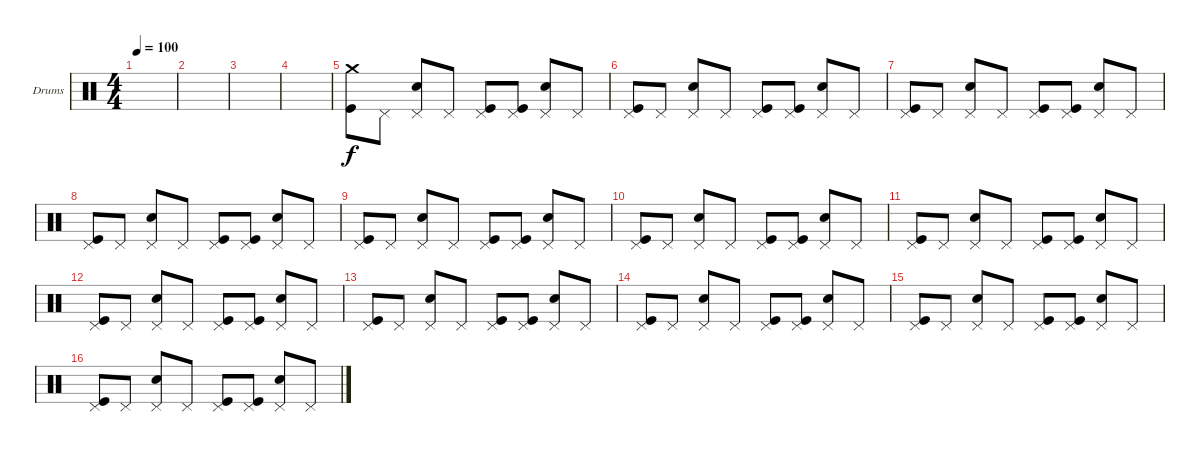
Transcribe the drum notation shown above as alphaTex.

\defaultSystemsLayout 4
\bracketExtendMode groupsimilarinstruments
\firstSystemTrackNameOrientation horizontal
\otherSystemsTrackNameOrientation horizontal
\track ("Drumkit" "Drums") {instrument percussion}
\staff {score}
\articulation defaults
\ts (4 4)
\tempo 100
\clef neutral
\scale
0.474178
\ks c
|
\scale
0.262911 |
\scale
0.262911 |
|
("Crash medium (hit)" "Kick (hit)").8 "Pedal Hi-Hat (hit)".8 ("Pedal Hi-Hat (hit)" "Snare (hit) 2").8 "Pedal Hi-Hat (hit)".8 ("Pedal Hi-Hat (hit)" "Kick (hit)").8 ("Pedal Hi-Hat (hit)" "Kick (hit)").8 ("Pedal Hi-Hat (hit)" "Snare (hit) 2").8 "Pedal Hi-Hat (hit)".8 |
("Pedal Hi-Hat (hit)" "Kick (hit)").8 "Pedal Hi-Hat (hit)".8 ("Pedal Hi-Hat (hit)" "Snare (hit) 2").8 "Pedal Hi-Hat (hit)".8 ("Pedal Hi-Hat (hit)" "Kick (hit)").8 ("Pedal Hi-Hat (hit)" "Kick (hit)").8 ("Pedal Hi-Hat (hit)" "Snare (hit) 2").8 "Pedal Hi-Hat (hit)".8 |
("Pedal Hi-Hat (hit)" "Kick (hit)").8 "Pedal Hi-Hat (hit)".8 ("Pedal Hi-Hat (hit)" "Snare (hit) 2").8 "Pedal Hi-Hat (hit)".8 ("Pedal Hi-Hat (hit)" "Kick (hit)").8 ("Pedal Hi-Hat (hit)" "Kick (hit)").8 ("Pedal Hi-Hat (hit)" "Snare (hit) 2").8 "Pedal Hi-Hat (hit)".8 |
("Pedal Hi-Hat (hit)" "Kick (hit)").8 "Pedal Hi-Hat (hit)".8 ("Pedal Hi-Hat (hit)" "Snare (hit) 2").8 "Pedal Hi-Hat (hit)".8 ("Pedal Hi-Hat (hit)" "Kick (hit)").8 ("Pedal Hi-Hat (hit)" "Kick (hit)").8 ("Pedal Hi-Hat (hit)" "Snare (hit) 2").8 "Pedal Hi-Hat (hit)".8 |
("Pedal Hi-Hat (hit)" "Kick (hit)").8 "Pedal Hi-Hat (hit)".8 ("Pedal Hi-Hat (hit)" "Snare (hit) 2").8 "Pedal Hi-Hat (hit)".8 ("Pedal Hi-Hat (hit)" "Kick (hit)").8 ("Pedal Hi-Hat (hit)" "Kick (hit)").8 ("Pedal Hi-Hat (hit)" "Snare (hit) 2").8 "Pedal Hi-Hat (hit)".8 |
("Pedal Hi-Hat (hit)" "Kick (hit)").8 "Pedal Hi-Hat (hit)".8 ("Pedal Hi-Hat (hit)" "Snare (hit) 2").8 "Pedal Hi-Hat (hit)".8 ("Pedal Hi-Hat (hit)" "Kick (hit)").8 ("Pedal Hi-Hat (hit)" "Kick (hit)").8 ("Pedal Hi-Hat (hit)" "Snare (hit) 2").8 "Pedal Hi-Hat (hit)".8 |
("Pedal Hi-Hat (hit)" "Kick (hit)").8 "Pedal Hi-Hat (hit)".8 ("Pedal Hi-Hat (hit)" "Snare (hit) 2").8 "Pedal Hi-Hat (hit)".8 ("Pedal Hi-Hat (hit)" "Kick (hit)").8 ("Pedal Hi-Hat (hit)" "Kick (hit)").8 ("Pedal Hi-Hat (hit)" "Snare (hit) 2").8 "Pedal Hi-Hat (hit)".8 |
("Pedal Hi-Hat (hit)" "Kick (hit)").8 "Pedal Hi-Hat (hit)".8 ("Pedal Hi-Hat (hit)" "Snare (hit) 2").8 "Pedal Hi-Hat (hit)".8 ("Pedal Hi-Hat (hit)" "Kick (hit)").8 ("Pedal Hi-Hat (hit)" "Kick (hit)").8 ("Pedal Hi-Hat (hit)" "Snare (hit) 2").8 "Pedal Hi-Hat (hit)".8 |
("Pedal Hi-Hat (hit)" "Kick (hit)").8 "Pedal Hi-Hat (hit)".8 ("Pedal Hi-Hat (hit)" "Snare (hit) 2").8 "Pedal Hi-Hat (hit)".8 ("Pedal Hi-Hat (hit)" "Kick (hit)").8 ("Pedal Hi-Hat (hit)" "Kick (hit)").8 ("Pedal Hi-Hat (hit)" "Snare (hit) 2").8 "Pedal Hi-Hat (hit)".8 |
("Pedal Hi-Hat (hit)" "Kick (hit)").8 "Pedal Hi-Hat (hit)".8 ("Pedal Hi-Hat (hit)" "Snare (hit) 2").8 "Pedal Hi-Hat (hit)".8 ("Pedal Hi-Hat (hit)" "Kick (hit)").8 ("Pedal Hi-Hat (hit)" "Kick (hit)").8 ("Pedal Hi-Hat (hit)" "Snare (hit) 2").8 "Pedal Hi-Hat (hit)".8 |
("Pedal Hi-Hat (hit)" "Kick (hit)").8 "Pedal Hi-Hat (hit)".8 ("Pedal Hi-Hat (hit)" "Snare (hit) 2").8 "Pedal Hi-Hat (hit)".8 ("Pedal Hi-Hat (hit)" "Kick (hit)").8 ("Pedal Hi-Hat (hit)" "Kick (hit)").8 ("Pedal Hi-Hat (hit)" "Snare (hit) 2").8 "Pedal Hi-Hat (hit)".8 |
("Pedal Hi-Hat (hit)" "Kick (hit)").8 "Pedal Hi-Hat (hit)".8 ("Pedal Hi-Hat (hit)" "Snare (hit) 2").8 "Pedal Hi-Hat (hit)".8 ("Pedal Hi-Hat (hit)" "Kick (hit)").8 ("Pedal Hi-Hat (hit)" "Kick (hit)").8 ("Pedal Hi-Hat (hit)" "Snare (hit) 2").8 "Pedal Hi-Hat (hit)".8
